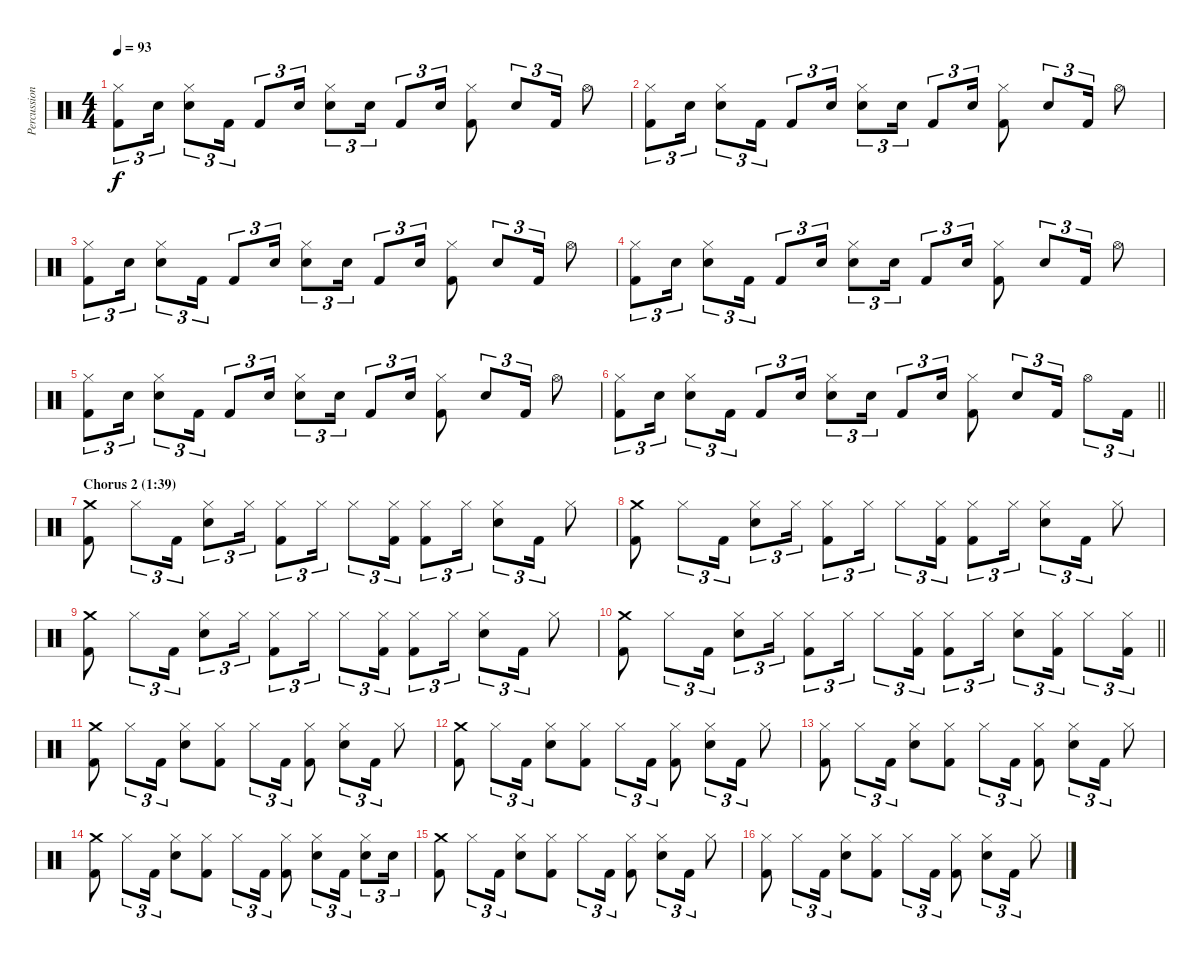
\track ("Percussion" "Percussion") {instrument percussion}
\staff {score}
\articulation defaults
\ts (4 4)
\tempo 93
\clef neutral
\ks c
("Hi-Hat (closed)" "Kick (hit) 2").8{tu (3 2) dy f} "Electric Snare (hit)".16{tu (3 2)} ("Hi-Hat (closed)" "Electric Snare (hit)").8{tu (3 2)} "Kick (hit) 2".16{tu (3 2)} "Kick (hit) 2".8{tu (3 2)} "Electric Snare (hit)".16{tu (3 2)} ("Hi-Hat (closed)" "Electric Snare (hit)").8{tu (3 2)} "Electric Snare (hit)".16{tu (3 2)} "Kick (hit) 2".8{tu (3 2)} "Electric Snare (hit)".16{tu (3 2)} ("Hi-Hat (closed)" "Kick (hit) 2").8 "Electric Snare (hit)".8{tu (3 2)} "Kick (hit) 2".16{tu (3 2)} "Hi-Hat (open)".8 |
("Hi-Hat (closed)" "Kick (hit) 2").8{tu (3 2)} "Electric Snare (hit)".16{tu (3 2)} ("Hi-Hat (closed)" "Electric Snare (hit)").8{tu (3 2)} "Kick (hit) 2".16{tu (3 2)} "Kick (hit) 2".8{tu (3 2)} "Electric Snare (hit)".16{tu (3 2)} ("Hi-Hat (closed)" "Electric Snare (hit)").8{tu (3 2)} "Electric Snare (hit)".16{tu (3 2)} "Kick (hit) 2".8{tu (3 2)} "Electric Snare (hit)".16{tu (3 2)} ("Hi-Hat (closed)" "Kick (hit) 2").8 "Electric Snare (hit)".8{tu (3 2)} "Kick (hit) 2".16{tu (3 2)} "Hi-Hat (open)".8 |
("Hi-Hat (closed)" "Kick (hit) 2").8{tu (3 2)} "Electric Snare (hit)".16{tu (3 2)} ("Hi-Hat (closed)" "Electric Snare (hit)").8{tu (3 2)} "Kick (hit) 2".16{tu (3 2)} "Kick (hit) 2".8{tu (3 2)} "Electric Snare (hit)".16{tu (3 2)} ("Hi-Hat (closed)" "Electric Snare (hit)").8{tu (3 2)} "Electric Snare (hit)".16{tu (3 2)} "Kick (hit) 2".8{tu (3 2)} "Electric Snare (hit)".16{tu (3 2)} ("Hi-Hat (closed)" "Kick (hit) 2").8 "Electric Snare (hit)".8{tu (3 2)} "Kick (hit) 2".16{tu (3 2)} "Hi-Hat (open)".8 |
("Hi-Hat (closed)" "Kick (hit) 2").8{tu (3 2)} "Electric Snare (hit)".16{tu (3 2)} ("Hi-Hat (closed)" "Electric Snare (hit)").8{tu (3 2)} "Kick (hit) 2".16{tu (3 2)} "Kick (hit) 2".8{tu (3 2)} "Electric Snare (hit)".16{tu (3 2)} ("Hi-Hat (closed)" "Electric Snare (hit)").8{tu (3 2)} "Electric Snare (hit)".16{tu (3 2)} "Kick (hit) 2".8{tu (3 2)} "Electric Snare (hit)".16{tu (3 2)} ("Hi-Hat (closed)" "Kick (hit) 2").8 "Electric Snare (hit)".8{tu (3 2)} "Kick (hit) 2".16{tu (3 2)} "Hi-Hat (open)".8 |
("Hi-Hat (closed)" "Kick (hit) 2").8{tu (3 2)} "Electric Snare (hit)".16{tu (3 2)} ("Hi-Hat (closed)" "Electric Snare (hit)").8{tu (3 2)} "Kick (hit) 2".16{tu (3 2)} "Kick (hit) 2".8{tu (3 2)} "Electric Snare (hit)".16{tu (3 2)} ("Hi-Hat (closed)" "Electric Snare (hit)").8{tu (3 2)} "Electric Snare (hit)".16{tu (3 2)} "Kick (hit) 2".8{tu (3 2)} "Electric Snare (hit)".16{tu (3 2)} ("Hi-Hat (closed)" "Kick (hit) 2").8 "Electric Snare (hit)".8{tu (3 2)} "Kick (hit) 2".16{tu (3 2)} "Hi-Hat (open)".8 |
\barLineRight lightlight
("Hi-Hat (closed)" "Kick (hit) 2").8{tu (3 2)} "Electric Snare (hit)".16{tu (3 2)} ("Hi-Hat (closed)" "Electric Snare (hit)").8{tu (3 2)} "Kick (hit) 2".16{tu (3 2)} "Kick (hit) 2".8{tu (3 2)} "Electric Snare (hit)".16{tu (3 2)} ("Hi-Hat (closed)" "Electric Snare (hit)").8{tu (3 2)} "Electric Snare (hit)".16{tu (3 2)} "Kick (hit) 2".8{tu (3 2)} "Electric Snare (hit)".16{tu (3 2)} ("Hi-Hat (closed)" "Kick (hit) 2").8 "Electric Snare (hit)".8{tu (3 2)} "Kick (hit) 2".16{tu (3 2)} "Hi-Hat (open)".8{tu (3 2)} "Kick (hit) 2".16{tu (3 2)} |
\section ("" "Chorus 2 (1:39)")
("Crash medium (hit)" "Kick (hit) 2").8 "Hi-Hat (closed)".8{tu (3 2)} "Kick (hit) 2".16{tu (3 2)} ("Hi-Hat (closed)" "Electric Snare (hit)").8{tu (3 2)} "Hi-Hat (closed)".16{tu (3 2)} ("Hi-Hat (closed)" "Kick (hit) 2").8{tu (3 2)} "Hi-Hat (closed)".16{tu (3 2)} "Hi-Hat (closed)".8{tu (3 2)} ("Hi-Hat (closed)" "Kick (hit) 2").16{tu (3 2)} ("Hi-Hat (closed)" "Kick (hit) 2").8{tu (3 2)} "Hi-Hat (closed)".16{tu (3 2)} ("Hi-Hat (closed)" "Electric Snare (hit)").8{tu (3 2)} "Kick (hit) 2".16{tu (3 2)} "Hi-Hat (closed)".8 |
("Crash medium (hit)" "Kick (hit) 2").8 "Hi-Hat (closed)".8{tu (3 2)} "Kick (hit) 2".16{tu (3 2)} ("Hi-Hat (closed)" "Electric Snare (hit)").8{tu (3 2)} "Hi-Hat (closed)".16{tu (3 2)} ("Hi-Hat (closed)" "Kick (hit) 2").8{tu (3 2)} "Hi-Hat (closed)".16{tu (3 2)} "Hi-Hat (closed)".8{tu (3 2)} ("Hi-Hat (closed)" "Kick (hit) 2").16{tu (3 2)} ("Hi-Hat (closed)" "Kick (hit) 2").8{tu (3 2)} "Hi-Hat (closed)".16{tu (3 2)} ("Hi-Hat (closed)" "Electric Snare (hit)").8{tu (3 2)} "Kick (hit) 2".16{tu (3 2)} "Hi-Hat (closed)".8 |
("Crash medium (hit)" "Kick (hit) 2").8 "Hi-Hat (closed)".8{tu (3 2)} "Kick (hit) 2".16{tu (3 2)} ("Hi-Hat (closed)" "Electric Snare (hit)").8{tu (3 2)} "Hi-Hat (closed)".16{tu (3 2)} ("Hi-Hat (closed)" "Kick (hit) 2").8{tu (3 2)} "Hi-Hat (closed)".16{tu (3 2)} "Hi-Hat (closed)".8{tu (3 2)} ("Hi-Hat (closed)" "Kick (hit) 2").16{tu (3 2)} ("Hi-Hat (closed)" "Kick (hit) 2").8{tu (3 2)} "Hi-Hat (closed)".16{tu (3 2)} ("Hi-Hat (closed)" "Electric Snare (hit)").8{tu (3 2)} "Kick (hit) 2".16{tu (3 2)} "Hi-Hat (closed)".8 |
\barLineRight lightlight
("Crash medium (hit)" "Kick (hit) 2").8 "Hi-Hat (closed)".8{tu (3 2)} "Kick (hit) 2".16{tu (3 2)} ("Hi-Hat (closed)" "Electric Snare (hit)").8{tu (3 2)} "Hi-Hat (closed)".16{tu (3 2)} ("Hi-Hat (closed)" "Kick (hit) 2").8{tu (3 2)} "Hi-Hat (closed)".16{tu (3 2)} "Hi-Hat (closed)".8{tu (3 2)} ("Hi-Hat (closed)" "Kick (hit) 2").16{tu (3 2)} ("Hi-Hat (closed)" "Kick (hit) 2").8{tu (3 2)} "Hi-Hat (closed)".16{tu (3 2)} ("Hi-Hat (closed)" "Electric Snare (hit)").8{tu (3 2)} ("Hi-Hat (closed)" "Kick (hit) 2").16{tu (3 2)} "Hi-Hat (closed)".8{tu (3 2)} ("Hi-Hat (closed)" "Kick (hit) 2").16{tu (3 2)} |
("Crash medium (hit)" "Kick (hit) 2").8 "Hi-Hat (closed)".8{tu (3 2)} "Kick (hit) 2".16{tu (3 2)} ("Hi-Hat (closed)" "Electric Snare (hit)").8 ("Hi-Hat (closed)" "Kick (hit) 2").8 "Hi-Hat (closed)".8{tu (3 2)} "Kick (hit) 2".16{tu (3 2)} ("Hi-Hat (closed)" "Kick (hit) 2").8 ("Hi-Hat (closed)" "Electric Snare (hit)").8{tu (3 2)} "Kick (hit) 2".16{tu (3 2)} "Hi-Hat (closed)".8 |
("Crash medium (hit)" "Kick (hit) 2").8 "Hi-Hat (closed)".8{tu (3 2)} "Kick (hit) 2".16{tu (3 2)} ("Hi-Hat (closed)" "Electric Snare (hit)").8 ("Hi-Hat (closed)" "Kick (hit) 2").8 "Hi-Hat (closed)".8{tu (3 2)} "Kick (hit) 2".16{tu (3 2)} ("Hi-Hat (closed)" "Kick (hit) 2").8 ("Hi-Hat (closed)" "Electric Snare (hit)").8{tu (3 2)} "Kick (hit) 2".16{tu (3 2)} "Hi-Hat (closed)".8 |
("Hi-Hat (closed)" "Kick (hit) 2").8 "Hi-Hat (closed)".8{tu (3 2)} "Kick (hit) 2".16{tu (3 2)} ("Hi-Hat (closed)" "Electric Snare (hit)").8 ("Hi-Hat (closed)" "Kick (hit) 2").8 "Hi-Hat (closed)".8{tu (3 2)} "Kick (hit) 2".16{tu (3 2)} ("Hi-Hat (closed)" "Kick (hit) 2").8 ("Hi-Hat (closed)" "Electric Snare (hit)").8{tu (3 2)} "Kick (hit) 2".16{tu (3 2)} "Hi-Hat (closed)".8 |
("Crash medium (hit)" "Kick (hit) 2").8 "Hi-Hat (closed)".8{tu (3 2)} "Kick (hit) 2".16{tu (3 2)} ("Hi-Hat (closed)" "Electric Snare (hit)").8 ("Hi-Hat (closed)" "Kick (hit) 2").8 "Hi-Hat (closed)".8{tu (3 2)} "Kick (hit) 2".16{tu (3 2)} ("Hi-Hat (closed)" "Kick (hit) 2").8 ("Hi-Hat (closed)" "Electric Snare (hit)").8{tu (3 2)} "Kick (hit) 2".16{tu (3 2)} ("Hi-Hat (closed)" "Electric Snare (hit)").8{tu (3 2)} "Electric Snare (hit)".16{tu (3 2)} |
("Crash medium (hit)" "Kick (hit) 2").8 "Hi-Hat (closed)".8{tu (3 2)} "Kick (hit) 2".16{tu (3 2)} ("Hi-Hat (closed)" "Electric Snare (hit)").8 ("Hi-Hat (closed)" "Kick (hit) 2").8 "Hi-Hat (closed)".8{tu (3 2)} "Kick (hit) 2".16{tu (3 2)} ("Hi-Hat (closed)" "Kick (hit) 2").8 ("Hi-Hat (closed)" "Electric Snare (hit)").8{tu (3 2)} "Kick (hit) 2".16{tu (3 2)} "Hi-Hat (closed)".8 |
("Hi-Hat (closed)" "Kick (hit) 2").8 "Hi-Hat (closed)".8{tu (3 2)} "Kick (hit) 2".16{tu (3 2)} ("Hi-Hat (closed)" "Electric Snare (hit)").8 ("Hi-Hat (closed)" "Kick (hit) 2").8 "Hi-Hat (closed)".8{tu (3 2)} "Kick (hit) 2".16{tu (3 2)} ("Hi-Hat (closed)" "Kick (hit) 2").8 ("Hi-Hat (closed)" "Electric Snare (hit)").8{tu (3 2)} "Kick (hit) 2".16{tu (3 2)} "Hi-Hat (closed)".8
